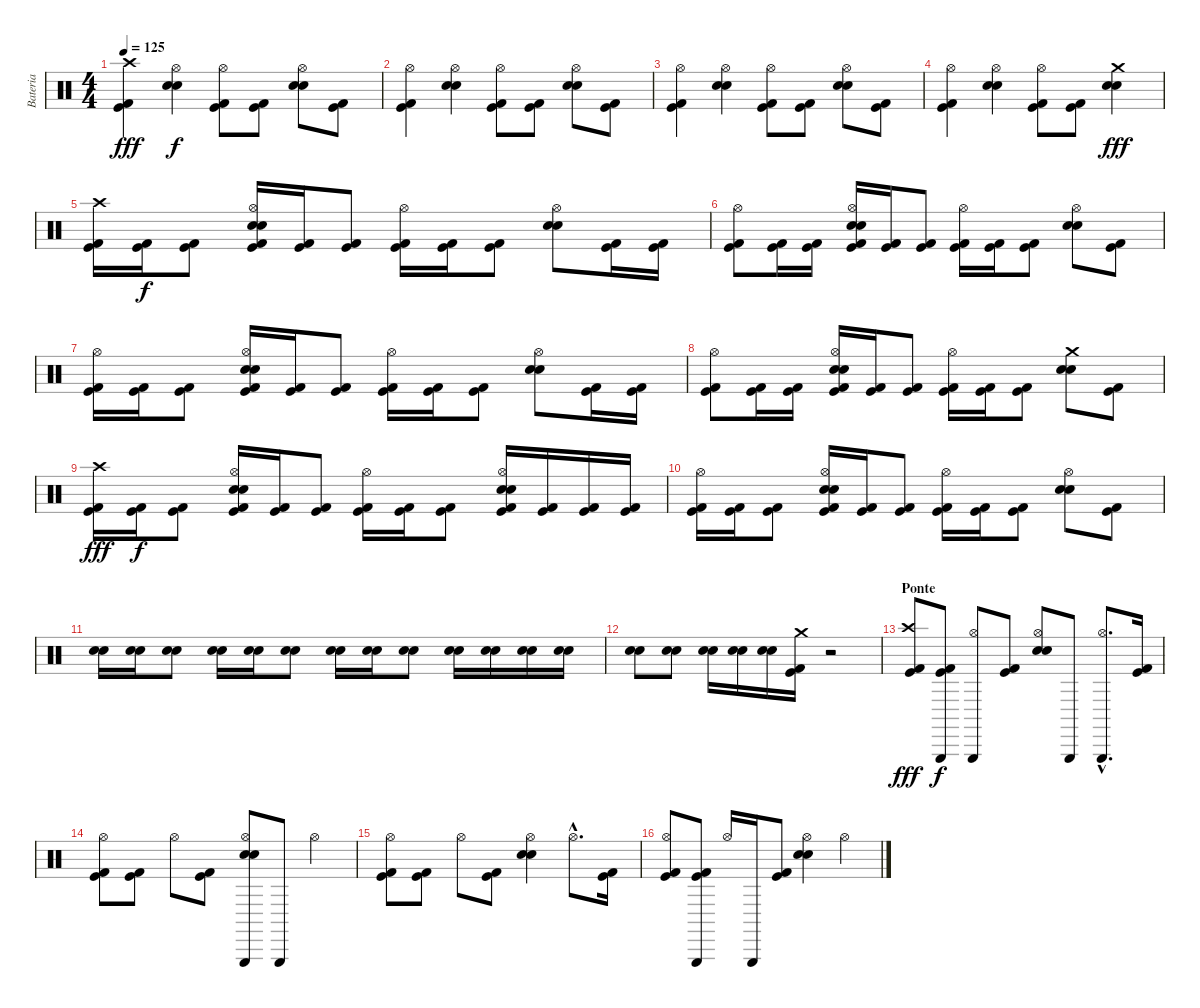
\track ("Bateria" "Bateria") {instrument percussion}
\staff {score}
\articulation defaults
\ts (4 4)
\tempo 125
\clef neutral
\ks c
("Crash high (hit)" "Kick (hit) 2" "Kick (hit)").4{dy fff} ("Hi-Hat (open)" "Electric Snare (hit)" "Snare (hit) 2").4{dy f} ("Hi-Hat (open)" "Kick (hit) 2" "Kick (hit)").8 ("Kick (hit) 2" "Kick (hit)").8 ("Hi-Hat (open)" "Electric Snare (hit)" "Snare (hit) 2").8 ("Kick (hit) 2" "Kick (hit)").8 |
("Hi-Hat (open)" "Kick (hit) 2" "Kick (hit)").4 ("Hi-Hat (open)" "Electric Snare (hit)" "Snare (hit) 2").4 ("Hi-Hat (open)" "Kick (hit) 2" "Kick (hit)").8 ("Kick (hit) 2" "Kick (hit)").8 ("Hi-Hat (open)" "Electric Snare (hit)" "Snare (hit) 2").8 ("Kick (hit) 2" "Kick (hit)").8 |
("Hi-Hat (open)" "Kick (hit) 2" "Kick (hit)").4 ("Hi-Hat (open)" "Electric Snare (hit)" "Snare (hit) 2").4 ("Hi-Hat (open)" "Kick (hit) 2" "Kick (hit)").8 ("Kick (hit) 2" "Kick (hit)").8 ("Hi-Hat (open)" "Electric Snare (hit)" "Snare (hit) 2").8 ("Kick (hit) 2" "Kick (hit)").8 |
("Hi-Hat (open)" "Kick (hit) 2" "Kick (hit)").4 ("Hi-Hat (open)" "Electric Snare (hit)" "Snare (hit) 2").4 ("Hi-Hat (open)" "Kick (hit) 2" "Kick (hit)").8 ("Kick (hit) 2" "Kick (hit)").8 ("Crash medium (hit)" "Electric Snare (hit)" "Snare (hit) 2").4{dy fff} |
("Crash high (hit)" "Kick (hit) 2" "Kick (hit)").16 ("Kick (hit) 2" "Kick (hit)").16{dy f} ("Kick (hit) 2" "Kick (hit)").8 ("Hi-Hat (open)" "Electric Snare (hit)" "Snare (hit) 2" "Kick (hit) 2" "Kick (hit)").16 ("Kick (hit) 2" "Kick (hit)").16 ("Kick (hit) 2" "Kick (hit)").8 ("Hi-Hat (open)" "Kick (hit) 2" "Kick (hit)").16 ("Kick (hit) 2" "Kick (hit)").16 ("Kick (hit) 2" "Kick (hit)").8 ("Hi-Hat (open)" "Electric Snare (hit)" "Snare (hit) 2").8 ("Kick (hit) 2" "Kick (hit)").16 ("Kick (hit) 2" "Kick (hit)").16 |
("Hi-Hat (open)" "Kick (hit) 2" "Kick (hit)").8 ("Kick (hit) 2" "Kick (hit)").16 ("Kick (hit) 2" "Kick (hit)").16 ("Hi-Hat (open)" "Electric Snare (hit)" "Snare (hit) 2" "Kick (hit) 2" "Kick (hit)").16 ("Kick (hit) 2" "Kick (hit)").16 ("Kick (hit) 2" "Kick (hit)").8 ("Hi-Hat (open)" "Kick (hit) 2" "Kick (hit)").16 ("Kick (hit) 2" "Kick (hit)").16 ("Kick (hit) 2" "Kick (hit)").8 ("Hi-Hat (open)" "Electric Snare (hit)" "Snare (hit) 2").8 ("Kick (hit) 2" "Kick (hit)").8 |
("Hi-Hat (open)" "Kick (hit) 2" "Kick (hit)").16 ("Kick (hit) 2" "Kick (hit)").16 ("Kick (hit) 2" "Kick (hit)").8 ("Hi-Hat (open)" "Electric Snare (hit)" "Snare (hit) 2" "Kick (hit) 2" "Kick (hit)").16 ("Kick (hit) 2" "Kick (hit)").16 ("Kick (hit) 2" "Kick (hit)").8 ("Hi-Hat (open)" "Kick (hit) 2" "Kick (hit)").16 ("Kick (hit) 2" "Kick (hit)").16 ("Kick (hit) 2" "Kick (hit)").8 ("Hi-Hat (open)" "Electric Snare (hit)" "Snare (hit) 2").8 ("Kick (hit) 2" "Kick (hit)").16 ("Kick (hit) 2" "Kick (hit)").16 |
("Hi-Hat (open)" "Kick (hit) 2" "Kick (hit)").8 ("Kick (hit) 2" "Kick (hit)").16 ("Kick (hit) 2" "Kick (hit)").16 ("Hi-Hat (open)" "Electric Snare (hit)" "Snare (hit) 2" "Kick (hit) 2" "Kick (hit)").16 ("Kick (hit) 2" "Kick (hit)").16 ("Kick (hit) 2" "Kick (hit)").8 ("Hi-Hat (open)" "Kick (hit) 2" "Kick (hit)").16 ("Kick (hit) 2" "Kick (hit)").16 ("Kick (hit) 2" "Kick (hit)").8 ("Crash medium (hit)" "Electric Snare (hit)" "Snare (hit) 2").8 ("Kick (hit) 2" "Kick (hit)").8 |
("Crash high (hit)" "Kick (hit) 2" "Kick (hit)").16{dy fff} ("Kick (hit) 2" "Kick (hit)").16{dy f} ("Kick (hit) 2" "Kick (hit)").8 ("Hi-Hat (open)" "Electric Snare (hit)" "Snare (hit) 2" "Kick (hit) 2" "Kick (hit)").16 ("Kick (hit) 2" "Kick (hit)").16 ("Kick (hit) 2" "Kick (hit)").8 ("Hi-Hat (open)" "Kick (hit) 2" "Kick (hit)").16 ("Kick (hit) 2" "Kick (hit)").16 ("Kick (hit) 2" "Kick (hit)").8 ("Hi-Hat (open)" "Electric Snare (hit)" "Snare (hit) 2" "Kick (hit) 2" "Kick (hit)").16 ("Kick (hit) 2" "Kick (hit)").16 ("Kick (hit) 2" "Kick (hit)").16 ("Kick (hit) 2" "Kick (hit)").16 |
("Hi-Hat (open)" "Kick (hit) 2" "Kick (hit)").16 ("Kick (hit) 2" "Kick (hit)").16 ("Kick (hit) 2" "Kick (hit)").8 ("Hi-Hat (open)" "Electric Snare (hit)" "Snare (hit) 2" "Kick (hit) 2" "Kick (hit)").16 ("Kick (hit) 2" "Kick (hit)").16 ("Kick (hit) 2" "Kick (hit)").8 ("Hi-Hat (open)" "Kick (hit) 2" "Kick (hit)").16 ("Kick (hit) 2" "Kick (hit)").16 ("Kick (hit) 2" "Kick (hit)").8 ("Hi-Hat (open)" "Electric Snare (hit)" "Snare (hit) 2").8 ("Kick (hit) 2" "Kick (hit)").8 |
("Electric Snare (hit)" "Snare (hit) 2").16 ("Electric Snare (hit)" "Snare (hit) 2").16 ("Electric Snare (hit)" "Snare (hit) 2").8 ("Electric Snare (hit)" "Snare (hit) 2").16 ("Electric Snare (hit)" "Snare (hit) 2").16 ("Electric Snare (hit)" "Snare (hit) 2").8 ("Electric Snare (hit)" "Snare (hit) 2").16 ("Electric Snare (hit)" "Snare (hit) 2").16 ("Electric Snare (hit)" "Snare (hit) 2").8 ("Electric Snare (hit)" "Snare (hit) 2").16 ("Electric Snare (hit)" "Snare (hit) 2").16 ("Electric Snare (hit)" "Snare (hit) 2").16 ("Electric Snare (hit)" "Snare (hit) 2").16 |
("Electric Snare (hit)" "Snare (hit) 2").8 ("Electric Snare (hit)" "Snare (hit) 2").8 ("Electric Snare (hit)" "Snare (hit) 2").16 ("Electric Snare (hit)" "Snare (hit) 2").16 ("Electric Snare (hit)" "Snare (hit) 2").16 ("Crash medium (hit)" "Kick (hit) 2" "Kick (hit)").16 r.2 |
\section ("" "Ponte")
("Crash high (hit)" "Kick (hit) 2" "Kick (hit)").8{dy fff} ("Triangle (hit)" "Kick (hit) 2" "Kick (hit)").8{dy f} ("Triangle (hit)" "Hi-Hat (open)").8 ("Kick (hit) 2" "Kick (hit)").8 ("Hi-Hat (open)" "Electric Snare (hit)" "Snare (hit) 2").8 "Triangle (hit)".8 ("Triangle (hit)"{hac} "Hi-Hat (open)"{hac}).8{d} ("Kick (hit) 2" "Kick (hit)").16 |
("Hi-Hat (open)" "Kick (hit) 2" "Kick (hit)").8 ("Kick (hit) 2" "Kick (hit)").8 "Hi-Hat (open)".8 ("Kick (hit) 2" "Kick (hit)").8 ("Triangle (hit)" "Hi-Hat (open)" "Electric Snare (hit)" "Snare (hit) 2").8 "Triangle (hit)".8 "Hi-Hat (open)".4 |
("Hi-Hat (open)" "Kick (hit) 2" "Kick (hit)").8 ("Kick (hit) 2" "Kick (hit)").8 "Hi-Hat (open)".8 ("Kick (hit) 2" "Kick (hit)").8 ("Hi-Hat (open)" "Electric Snare (hit)" "Snare (hit) 2").4 "Hi-Hat (open)"{hac}.8{d} ("Kick (hit) 2" "Kick (hit)").16 |
("Hi-Hat (open)" "Kick (hit) 2" "Kick (hit)").8 ("Triangle (hit)" "Kick (hit) 2" "Kick (hit)").8 "Hi-Hat (open)".16 "Triangle (hit)".16 ("Kick (hit) 2" "Kick (hit)").8 ("Hi-Hat (open)" "Electric Snare (hit)" "Snare (hit) 2").4 "Hi-Hat (open)".4
